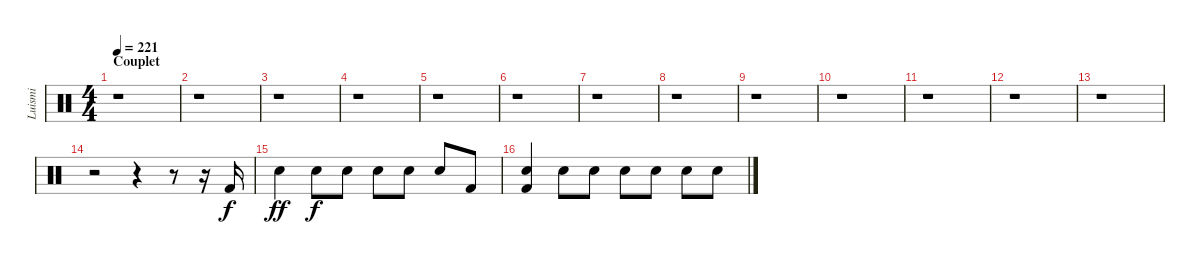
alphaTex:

\track ("Luismi" "Luismi") {instrument percussion}
\staff {score}
\articulation defaults
\ts (4 4)
\section ("" "Couplet")
\tempo 221
\clef neutral
\ks c
r.1{dy f} |
r.1 |
r.1 |
r.1 |
r.1 |
r.1 |
r.1 |
r.1 |
r.1 |
r.1 |
r.1 |
r.1 |
r.1 |
r.2 r.4 r.8 r.16 "Kick (hit) 2".16 |
"Snare (hit) 2".4{dy ff} "Snare (hit) 2".8{dy f} "Snare (hit) 2".8 "Snare (hit) 2".8 "Snare (hit) 2".8 "Snare (hit) 2".8 "Kick (hit) 2".8 |
("Snare (hit) 2" "Kick (hit) 2").4 "Snare (hit) 2".8 "Snare (hit) 2".8 "Snare (hit) 2".8 "Snare (hit) 2".8 "Snare (hit) 2".8 "Snare (hit) 2".8
